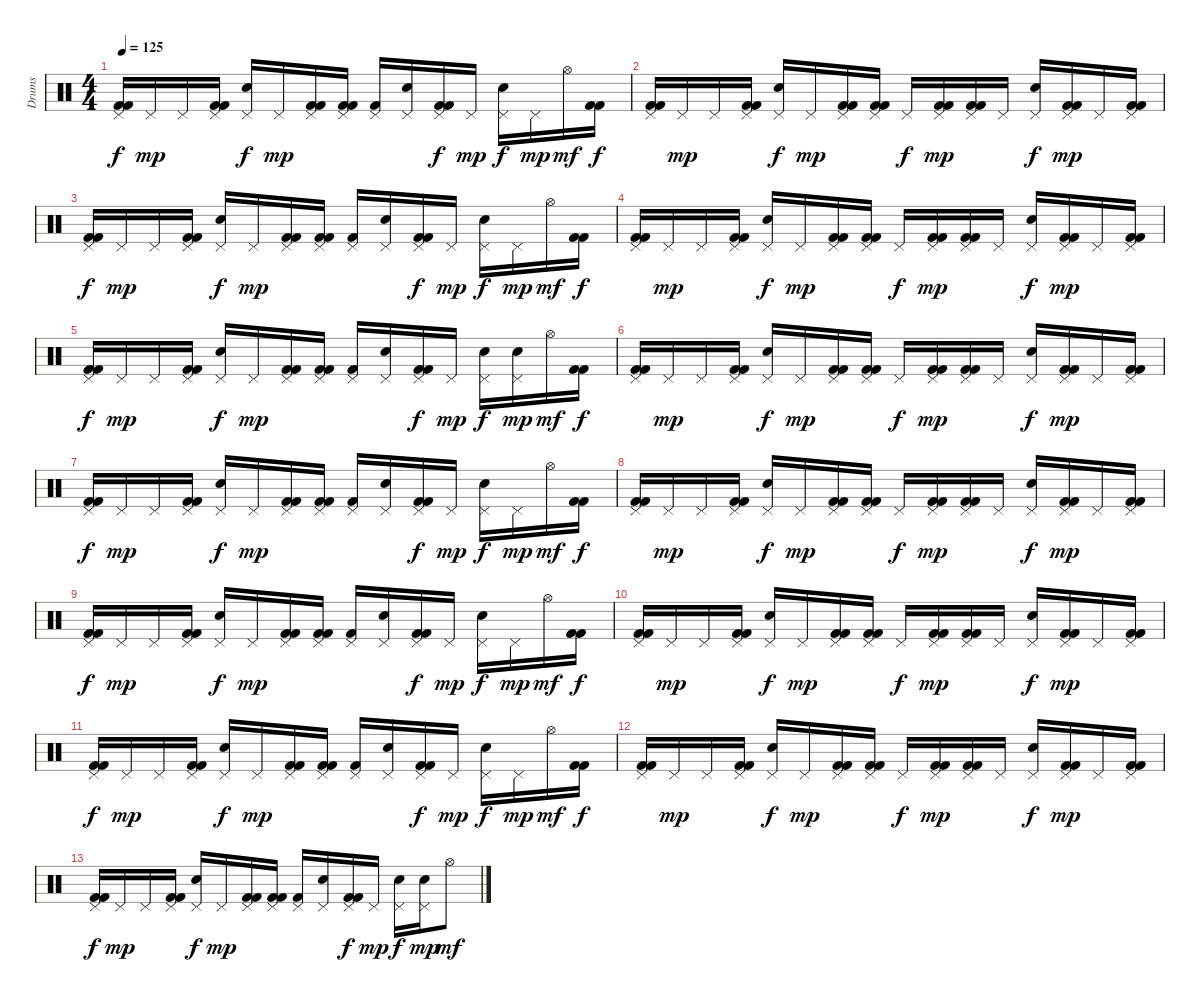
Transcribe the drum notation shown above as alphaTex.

\track ("Drums" "Drums") {instrument percussion}
\staff {score}
\articulation defaults
\ts (4 4)
\tempo 125
\clef neutral
\ks c
("Pedal Hi-Hat (hit)" "Kick (hit) 2" "Kick (hit) 2").16{dy f} "Pedal Hi-Hat (hit)".16{dy mp} "Pedal Hi-Hat (hit)".16 ("Pedal Hi-Hat (hit)" "Kick (hit) 2" "Kick (hit) 2").16 ("Pedal Hi-Hat (hit)" "Electric Snare (hit)").16{dy f} "Pedal Hi-Hat (hit)".16{dy mp} ("Pedal Hi-Hat (hit)" "Kick (hit) 2" "Kick (hit) 2").16 ("Pedal Hi-Hat (hit)" "Kick (hit) 2" "Kick (hit) 2").16 ("Pedal Hi-Hat (hit)" "Kick (hit) 2").16 ("Pedal Hi-Hat (hit)" "Electric Snare (hit)").16 ("Pedal Hi-Hat (hit)" "Kick (hit) 2" "Kick (hit) 2").16{dy f} "Pedal Hi-Hat (hit)".16{dy mp} ("Pedal Hi-Hat (hit)" "Electric Snare (hit)").16{dy f} "Pedal Hi-Hat (hit)".16{dy mp} "Hi-Hat (open)".16{dy mf} ("Kick (hit) 2" "Kick (hit) 2").16{dy f} |
("Pedal Hi-Hat (hit)" "Kick (hit) 2" "Kick (hit) 2").16 "Pedal Hi-Hat (hit)".16{dy mp} "Pedal Hi-Hat (hit)".16 ("Pedal Hi-Hat (hit)" "Kick (hit) 2" "Kick (hit) 2").16 ("Pedal Hi-Hat (hit)" "Electric Snare (hit)").16{dy f} "Pedal Hi-Hat (hit)".16{dy mp} ("Pedal Hi-Hat (hit)" "Kick (hit) 2" "Kick (hit) 2").16 ("Pedal Hi-Hat (hit)" "Kick (hit) 2" "Kick (hit) 2").16 "Pedal Hi-Hat (hit)".16{dy f} ("Pedal Hi-Hat (hit)" "Kick (hit) 2" "Kick (hit) 2").16{dy mp} ("Pedal Hi-Hat (hit)" "Kick (hit) 2" "Kick (hit) 2").16 "Pedal Hi-Hat (hit)".16 ("Pedal Hi-Hat (hit)" "Electric Snare (hit)").16{dy f} ("Pedal Hi-Hat (hit)" "Kick (hit) 2" "Kick (hit) 2").16{dy mp} "Pedal Hi-Hat (hit)".16 ("Pedal Hi-Hat (hit)" "Kick (hit) 2" "Kick (hit) 2").16 |
("Pedal Hi-Hat (hit)" "Kick (hit) 2" "Kick (hit) 2").16{dy f} "Pedal Hi-Hat (hit)".16{dy mp} "Pedal Hi-Hat (hit)".16 ("Pedal Hi-Hat (hit)" "Kick (hit) 2" "Kick (hit) 2").16 ("Pedal Hi-Hat (hit)" "Electric Snare (hit)").16{dy f} "Pedal Hi-Hat (hit)".16{dy mp} ("Pedal Hi-Hat (hit)" "Kick (hit) 2" "Kick (hit) 2").16 ("Pedal Hi-Hat (hit)" "Kick (hit) 2" "Kick (hit) 2").16 ("Pedal Hi-Hat (hit)" "Kick (hit) 2").16 ("Pedal Hi-Hat (hit)" "Electric Snare (hit)").16 ("Pedal Hi-Hat (hit)" "Kick (hit) 2" "Kick (hit) 2").16{dy f} "Pedal Hi-Hat (hit)".16{dy mp} ("Pedal Hi-Hat (hit)" "Electric Snare (hit)").16{dy f} "Pedal Hi-Hat (hit)".16{dy mp} "Hi-Hat (open)".16{dy mf} ("Kick (hit) 2" "Kick (hit) 2").16{dy f} |
("Pedal Hi-Hat (hit)" "Kick (hit) 2" "Kick (hit) 2").16 "Pedal Hi-Hat (hit)".16{dy mp} "Pedal Hi-Hat (hit)".16 ("Pedal Hi-Hat (hit)" "Kick (hit) 2" "Kick (hit) 2").16 ("Pedal Hi-Hat (hit)" "Electric Snare (hit)").16{dy f} "Pedal Hi-Hat (hit)".16{dy mp} ("Pedal Hi-Hat (hit)" "Kick (hit) 2" "Kick (hit) 2").16 ("Pedal Hi-Hat (hit)" "Kick (hit) 2" "Kick (hit) 2").16 "Pedal Hi-Hat (hit)".16{dy f} ("Pedal Hi-Hat (hit)" "Kick (hit) 2" "Kick (hit) 2").16{dy mp} ("Pedal Hi-Hat (hit)" "Kick (hit) 2" "Kick (hit) 2").16 "Pedal Hi-Hat (hit)".16 ("Pedal Hi-Hat (hit)" "Electric Snare (hit)").16{dy f} ("Pedal Hi-Hat (hit)" "Kick (hit) 2" "Kick (hit) 2").16{dy mp} "Pedal Hi-Hat (hit)".16 ("Pedal Hi-Hat (hit)" "Kick (hit) 2" "Kick (hit) 2").16 |
("Pedal Hi-Hat (hit)" "Kick (hit) 2" "Kick (hit) 2").16{dy f} "Pedal Hi-Hat (hit)".16{dy mp} "Pedal Hi-Hat (hit)".16 ("Pedal Hi-Hat (hit)" "Kick (hit) 2" "Kick (hit) 2").16 ("Pedal Hi-Hat (hit)" "Electric Snare (hit)").16{dy f} "Pedal Hi-Hat (hit)".16{dy mp} ("Pedal Hi-Hat (hit)" "Kick (hit) 2" "Kick (hit) 2").16 ("Pedal Hi-Hat (hit)" "Kick (hit) 2" "Kick (hit) 2").16 ("Pedal Hi-Hat (hit)" "Kick (hit) 2").16 ("Pedal Hi-Hat (hit)" "Electric Snare (hit)").16 ("Pedal Hi-Hat (hit)" "Kick (hit) 2" "Kick (hit) 2").16{dy f} "Pedal Hi-Hat (hit)".16{dy mp} ("Pedal Hi-Hat (hit)" "Electric Snare (hit)").16{dy f} ("Pedal Hi-Hat (hit)" "Electric Snare (hit)").16{dy mp} "Hi-Hat (open)".16{dy mf} ("Kick (hit) 2" "Kick (hit) 2").16{dy f} |
("Pedal Hi-Hat (hit)" "Kick (hit) 2" "Kick (hit) 2").16 "Pedal Hi-Hat (hit)".16{dy mp} "Pedal Hi-Hat (hit)".16 ("Pedal Hi-Hat (hit)" "Kick (hit) 2" "Kick (hit) 2").16 ("Pedal Hi-Hat (hit)" "Electric Snare (hit)").16{dy f} "Pedal Hi-Hat (hit)".16{dy mp} ("Pedal Hi-Hat (hit)" "Kick (hit) 2" "Kick (hit) 2").16 ("Pedal Hi-Hat (hit)" "Kick (hit) 2" "Kick (hit) 2").16 "Pedal Hi-Hat (hit)".16{dy f} ("Pedal Hi-Hat (hit)" "Kick (hit) 2" "Kick (hit) 2").16{dy mp} ("Pedal Hi-Hat (hit)" "Kick (hit) 2" "Kick (hit) 2").16 "Pedal Hi-Hat (hit)".16 ("Pedal Hi-Hat (hit)" "Electric Snare (hit)").16{dy f} ("Pedal Hi-Hat (hit)" "Kick (hit) 2" "Kick (hit) 2").16{dy mp} "Pedal Hi-Hat (hit)".16 ("Pedal Hi-Hat (hit)" "Kick (hit) 2" "Kick (hit) 2").16 |
("Pedal Hi-Hat (hit)" "Kick (hit) 2" "Kick (hit) 2").16{dy f} "Pedal Hi-Hat (hit)".16{dy mp} "Pedal Hi-Hat (hit)".16 ("Pedal Hi-Hat (hit)" "Kick (hit) 2" "Kick (hit) 2").16 ("Pedal Hi-Hat (hit)" "Electric Snare (hit)").16{dy f} "Pedal Hi-Hat (hit)".16{dy mp} ("Pedal Hi-Hat (hit)" "Kick (hit) 2" "Kick (hit) 2").16 ("Pedal Hi-Hat (hit)" "Kick (hit) 2" "Kick (hit) 2").16 ("Pedal Hi-Hat (hit)" "Kick (hit) 2").16 ("Pedal Hi-Hat (hit)" "Electric Snare (hit)").16 ("Pedal Hi-Hat (hit)" "Kick (hit) 2" "Kick (hit) 2").16{dy f} "Pedal Hi-Hat (hit)".16{dy mp} ("Pedal Hi-Hat (hit)" "Electric Snare (hit)").16{dy f} "Pedal Hi-Hat (hit)".16{dy mp} "Hi-Hat (open)".16{dy mf} ("Kick (hit) 2" "Kick (hit) 2").16{dy f} |
("Pedal Hi-Hat (hit)" "Kick (hit) 2" "Kick (hit) 2").16 "Pedal Hi-Hat (hit)".16{dy mp} "Pedal Hi-Hat (hit)".16 ("Pedal Hi-Hat (hit)" "Kick (hit) 2" "Kick (hit) 2").16 ("Pedal Hi-Hat (hit)" "Electric Snare (hit)").16{dy f} "Pedal Hi-Hat (hit)".16{dy mp} ("Pedal Hi-Hat (hit)" "Kick (hit) 2" "Kick (hit) 2").16 ("Pedal Hi-Hat (hit)" "Kick (hit) 2" "Kick (hit) 2").16 "Pedal Hi-Hat (hit)".16{dy f} ("Pedal Hi-Hat (hit)" "Kick (hit) 2" "Kick (hit) 2").16{dy mp} ("Pedal Hi-Hat (hit)" "Kick (hit) 2" "Kick (hit) 2").16 "Pedal Hi-Hat (hit)".16 ("Pedal Hi-Hat (hit)" "Electric Snare (hit)").16{dy f} ("Pedal Hi-Hat (hit)" "Kick (hit) 2" "Kick (hit) 2").16{dy mp} "Pedal Hi-Hat (hit)".16 ("Pedal Hi-Hat (hit)" "Kick (hit) 2" "Kick (hit) 2").16 |
("Pedal Hi-Hat (hit)" "Kick (hit) 2" "Kick (hit) 2").16{dy f} "Pedal Hi-Hat (hit)".16{dy mp} "Pedal Hi-Hat (hit)".16 ("Pedal Hi-Hat (hit)" "Kick (hit) 2" "Kick (hit) 2").16 ("Pedal Hi-Hat (hit)" "Electric Snare (hit)").16{dy f} "Pedal Hi-Hat (hit)".16{dy mp} ("Pedal Hi-Hat (hit)" "Kick (hit) 2" "Kick (hit) 2").16 ("Pedal Hi-Hat (hit)" "Kick (hit) 2" "Kick (hit) 2").16 ("Pedal Hi-Hat (hit)" "Kick (hit) 2").16 ("Pedal Hi-Hat (hit)" "Electric Snare (hit)").16 ("Pedal Hi-Hat (hit)" "Kick (hit) 2" "Kick (hit) 2").16{dy f} "Pedal Hi-Hat (hit)".16{dy mp} ("Pedal Hi-Hat (hit)" "Electric Snare (hit)").16{dy f} "Pedal Hi-Hat (hit)".16{dy mp} "Hi-Hat (open)".16{dy mf} ("Kick (hit) 2" "Kick (hit) 2").16{dy f} |
("Pedal Hi-Hat (hit)" "Kick (hit) 2" "Kick (hit) 2").16 "Pedal Hi-Hat (hit)".16{dy mp} "Pedal Hi-Hat (hit)".16 ("Pedal Hi-Hat (hit)" "Kick (hit) 2" "Kick (hit) 2").16 ("Pedal Hi-Hat (hit)" "Electric Snare (hit)").16{dy f} "Pedal Hi-Hat (hit)".16{dy mp} ("Pedal Hi-Hat (hit)" "Kick (hit) 2" "Kick (hit) 2").16 ("Pedal Hi-Hat (hit)" "Kick (hit) 2" "Kick (hit) 2").16 "Pedal Hi-Hat (hit)".16{dy f} ("Pedal Hi-Hat (hit)" "Kick (hit) 2" "Kick (hit) 2").16{dy mp} ("Pedal Hi-Hat (hit)" "Kick (hit) 2" "Kick (hit) 2").16 "Pedal Hi-Hat (hit)".16 ("Pedal Hi-Hat (hit)" "Electric Snare (hit)").16{dy f} ("Pedal Hi-Hat (hit)" "Kick (hit) 2" "Kick (hit) 2").16{dy mp} "Pedal Hi-Hat (hit)".16 ("Pedal Hi-Hat (hit)" "Kick (hit) 2" "Kick (hit) 2").16 |
("Pedal Hi-Hat (hit)" "Kick (hit) 2" "Kick (hit) 2").16{dy f} "Pedal Hi-Hat (hit)".16{dy mp} "Pedal Hi-Hat (hit)".16 ("Pedal Hi-Hat (hit)" "Kick (hit) 2" "Kick (hit) 2").16 ("Pedal Hi-Hat (hit)" "Electric Snare (hit)").16{dy f} "Pedal Hi-Hat (hit)".16{dy mp} ("Pedal Hi-Hat (hit)" "Kick (hit) 2" "Kick (hit) 2").16 ("Pedal Hi-Hat (hit)" "Kick (hit) 2" "Kick (hit) 2").16 ("Pedal Hi-Hat (hit)" "Kick (hit) 2").16 ("Pedal Hi-Hat (hit)" "Electric Snare (hit)").16 ("Pedal Hi-Hat (hit)" "Kick (hit) 2" "Kick (hit) 2").16{dy f} "Pedal Hi-Hat (hit)".16{dy mp} ("Pedal Hi-Hat (hit)" "Electric Snare (hit)").16{dy f} "Pedal Hi-Hat (hit)".16{dy mp} "Hi-Hat (open)".16{dy mf} ("Kick (hit) 2" "Kick (hit) 2").16{dy f} |
("Pedal Hi-Hat (hit)" "Kick (hit) 2" "Kick (hit) 2").16 "Pedal Hi-Hat (hit)".16{dy mp} "Pedal Hi-Hat (hit)".16 ("Pedal Hi-Hat (hit)" "Kick (hit) 2" "Kick (hit) 2").16 ("Pedal Hi-Hat (hit)" "Electric Snare (hit)").16{dy f} "Pedal Hi-Hat (hit)".16{dy mp} ("Pedal Hi-Hat (hit)" "Kick (hit) 2" "Kick (hit) 2").16 ("Pedal Hi-Hat (hit)" "Kick (hit) 2" "Kick (hit) 2").16 "Pedal Hi-Hat (hit)".16{dy f} ("Pedal Hi-Hat (hit)" "Kick (hit) 2" "Kick (hit) 2").16{dy mp} ("Pedal Hi-Hat (hit)" "Kick (hit) 2" "Kick (hit) 2").16 "Pedal Hi-Hat (hit)".16 ("Pedal Hi-Hat (hit)" "Electric Snare (hit)").16{dy f} ("Pedal Hi-Hat (hit)" "Kick (hit) 2" "Kick (hit) 2").16{dy mp} "Pedal Hi-Hat (hit)".16 ("Pedal Hi-Hat (hit)" "Kick (hit) 2" "Kick (hit) 2").16 |
("Pedal Hi-Hat (hit)" "Kick (hit) 2" "Kick (hit) 2").16{dy f} "Pedal Hi-Hat (hit)".16{dy mp} "Pedal Hi-Hat (hit)".16 ("Pedal Hi-Hat (hit)" "Kick (hit) 2" "Kick (hit) 2").16 ("Pedal Hi-Hat (hit)" "Electric Snare (hit)").16{dy f} "Pedal Hi-Hat (hit)".16{dy mp} ("Pedal Hi-Hat (hit)" "Kick (hit) 2" "Kick (hit) 2").16 ("Pedal Hi-Hat (hit)" "Kick (hit) 2" "Kick (hit) 2").16 ("Pedal Hi-Hat (hit)" "Kick (hit) 2").16 ("Pedal Hi-Hat (hit)" "Electric Snare (hit)").16 ("Pedal Hi-Hat (hit)" "Kick (hit) 2" "Kick (hit) 2").16{dy f} "Pedal Hi-Hat (hit)".16{dy mp} ("Pedal Hi-Hat (hit)" "Electric Snare (hit)").16{dy f} ("Pedal Hi-Hat (hit)" "Electric Snare (hit)").16{dy mp} "Hi-Hat (open)".8{dy mf}
